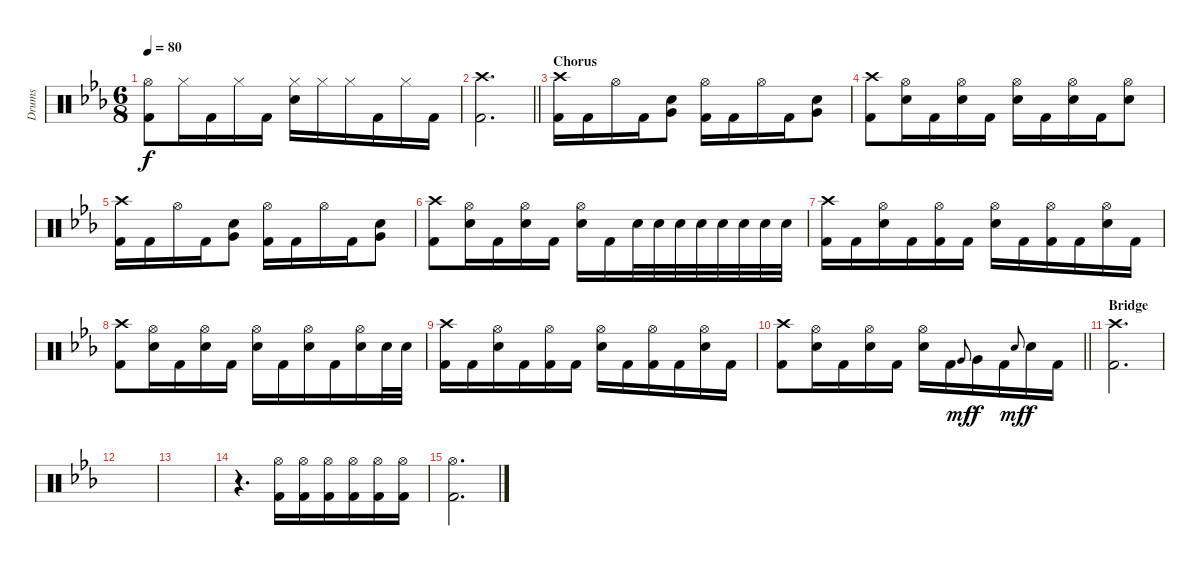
\track ("Drums" "Drums") {instrument percussion}
\staff {score}
\articulation defaults
\ts (6 8)
\tempo 80
\clef neutral
\ks cminor
("Hi-Hat (open)" "Kick (hit) 2").8{dy f} "Hi-Hat (closed)".16 "Kick (hit) 2".16 "Hi-Hat (closed)".16 "Kick (hit) 2".16 ("Hi-Hat (closed)" "Snare (hit) 2").16 "Hi-Hat (closed)".16 "Hi-Hat (closed)".16 "Kick (hit) 2".16 "Hi-Hat (closed)".16 "Kick (hit) 2".16 |
\barLineRight lightlight
("Crash high (hit)" "Kick (hit) 2").2{d} |
\section ("" "Chorus")
("Crash high (hit)" "Kick (hit) 2").16 "Kick (hit) 2".16 "Hi-Hat (open)".16 "Kick (hit) 2".16 ("Very Low Tom (hit)" "Snare (hit) 2").8 ("Hi-Hat (open)" "Kick (hit) 2").16 "Kick (hit) 2".16 "Hi-Hat (open)".16 "Kick (hit) 2".16 ("Very Low Tom (hit)" "Snare (hit) 2").8 |
("Crash high (hit)" "Kick (hit) 2").8 ("Hi-Hat (open)" "Snare (hit) 2").16 "Kick (hit) 2".16 ("Hi-Hat (open)" "Snare (hit) 2").16 "Kick (hit) 2".16 ("Hi-Hat (open)" "Snare (hit) 2").16 "Kick (hit) 2".16 ("Hi-Hat (open)" "Snare (hit) 2").16 "Kick (hit) 2".16 ("Hi-Hat (open)" "Snare (hit) 2").8 |
("Crash high (hit)" "Kick (hit) 2").16 "Kick (hit) 2".16 "Hi-Hat (open)".16 "Kick (hit) 2".16 ("Very Low Tom (hit)" "Snare (hit) 2").8 ("Hi-Hat (open)" "Kick (hit) 2").16 "Kick (hit) 2".16 "Hi-Hat (open)".16 "Kick (hit) 2".16 ("Very Low Tom (hit)" "Snare (hit) 2").8 |
("Crash high (hit)" "Kick (hit) 2").8 ("Hi-Hat (open)" "Snare (hit) 2").16 "Kick (hit) 2".16 ("Hi-Hat (open)" "Snare (hit) 2").16 "Kick (hit) 2".16 ("Hi-Hat (open)" "Snare (hit) 2").16 "Kick (hit) 2".16 "Snare (hit) 2".32 "Snare (hit) 2".32 "Snare (hit) 2".32 "Snare (hit) 2".32 "Snare (hit) 2".32 "Snare (hit) 2".32 "Snare (hit) 2".32 "Snare (hit) 2".32 |
("Crash high (hit)" "Kick (hit) 2").16 "Kick (hit) 2".16 ("Hi-Hat (open)" "Snare (hit) 2").16 "Kick (hit) 2".16 ("Hi-Hat (open)" "Kick (hit) 2").16 "Kick (hit) 2".16 ("Hi-Hat (open)" "Snare (hit) 2").16 "Kick (hit) 2".16 ("Hi-Hat (open)" "Kick (hit) 2").16 "Kick (hit) 2".16 ("Hi-Hat (open)" "Snare (hit) 2").16 "Kick (hit) 2".16 |
("Crash high (hit)" "Kick (hit) 2").8 ("Hi-Hat (open)" "Snare (hit) 2").16 "Kick (hit) 2".16 ("Hi-Hat (open)" "Snare (hit) 2").16 "Kick (hit) 2".16 ("Hi-Hat (open)" "Snare (hit) 2").16 "Kick (hit) 2".16 ("Hi-Hat (open)" "Snare (hit) 2").16 "Kick (hit) 2".16 ("Hi-Hat (open)" "Snare (hit) 2").16 "Snare (hit) 2".32 "Snare (hit) 2".32 |
("Crash high (hit)" "Kick (hit) 2").16 "Kick (hit) 2".16 ("Hi-Hat (open)" "Snare (hit) 2").16 "Kick (hit) 2".16 ("Hi-Hat (open)" "Kick (hit) 2").16 "Kick (hit) 2".16 ("Hi-Hat (open)" "Snare (hit) 2").16 "Kick (hit) 2".16 ("Hi-Hat (open)" "Kick (hit) 2").16 "Kick (hit) 2".16 ("Hi-Hat (open)" "Snare (hit) 2").16 "Kick (hit) 2".16 |
\barLineRight lightlight
("Crash high (hit)" "Kick (hit) 2").8 ("Hi-Hat (open)" "Snare (hit) 2").16 "Kick (hit) 2".16 ("Hi-Hat (open)" "Snare (hit) 2").16 "Kick (hit) 2".16 ("Hi-Hat (open)" "Snare (hit) 2").16 "Kick (hit) 2".16 "Very Low Tom (hit)".8{gr onbeat dy mf} "Very Low Tom (hit)".16{dy f} "Kick (hit) 2".16 "Snare (hit) 2".8{gr onbeat dy mf} "Snare (hit) 2".16{dy f} "Kick (hit) 2".16 |
\section ("" "Bridge")
("Crash high (hit)" "Kick (hit) 2").2{d} |
|
|
r.4{d} ("Hi-Hat (open)" "Kick (hit) 2").16 ("Hi-Hat (open)" "Kick (hit) 2").16 ("Hi-Hat (open)" "Kick (hit) 2").16 ("Hi-Hat (open)" "Kick (hit) 2").16 ("Hi-Hat (open)" "Kick (hit) 2").16 ("Hi-Hat (open)" "Kick (hit) 2").16 |
("Hi-Hat (open)" "Kick (hit) 2").2{d}
